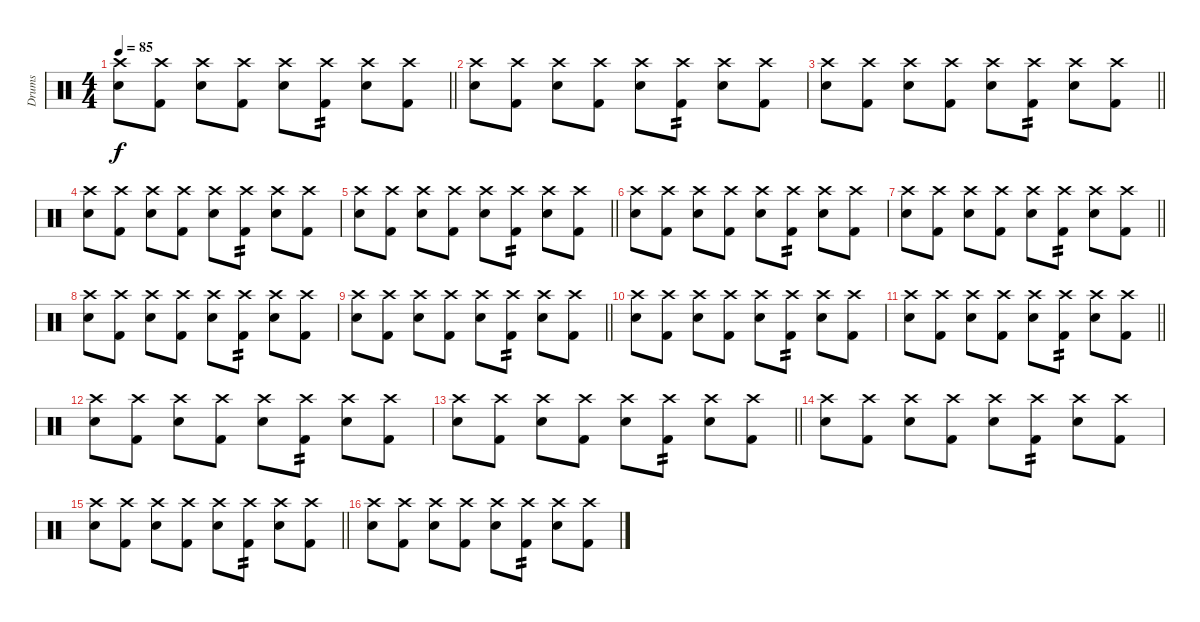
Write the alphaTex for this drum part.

\track ("Drums" "Drums") {instrument percussion}
\staff {score}
\articulation defaults
\ts (4 4)
\tempo 85
\clef neutral
\barLineRight lightlight
\ks c
("Crash high (hit)" "Electric Snare (hit)").8{dy f} ("Crash high (hit)" "Kick (hit) 2").8 ("Crash high (hit)" "Electric Snare (hit)").8 ("Crash high (hit)" "Kick (hit) 2").8 ("Crash high (hit)" "Electric Snare (hit)").8 ("Crash high (hit)" "Kick (hit) 2").8{tp 2} ("Crash high (hit)" "Electric Snare (hit)").8 ("Crash high (hit)" "Kick (hit) 2").8 |
("Crash high (hit)" "Electric Snare (hit)").8 ("Crash high (hit)" "Kick (hit) 2").8 ("Crash high (hit)" "Electric Snare (hit)").8 ("Crash high (hit)" "Kick (hit) 2").8 ("Crash high (hit)" "Electric Snare (hit)").8 ("Crash high (hit)" "Kick (hit) 2").8{tp 2} ("Crash high (hit)" "Electric Snare (hit)").8 ("Crash high (hit)" "Kick (hit) 2").8 |
\barLineRight lightlight
("Crash high (hit)" "Electric Snare (hit)").8 ("Crash high (hit)" "Kick (hit) 2").8 ("Crash high (hit)" "Electric Snare (hit)").8 ("Crash high (hit)" "Kick (hit) 2").8 ("Crash high (hit)" "Electric Snare (hit)").8 ("Crash high (hit)" "Kick (hit) 2").8{tp 2} ("Crash high (hit)" "Electric Snare (hit)").8 ("Crash high (hit)" "Kick (hit) 2").8 |
("Crash high (hit)" "Electric Snare (hit)").8 ("Crash high (hit)" "Kick (hit) 2").8 ("Crash high (hit)" "Electric Snare (hit)").8 ("Crash high (hit)" "Kick (hit) 2").8 ("Crash high (hit)" "Electric Snare (hit)").8 ("Crash high (hit)" "Kick (hit) 2").8{tp 2} ("Crash high (hit)" "Electric Snare (hit)").8 ("Crash high (hit)" "Kick (hit) 2").8 |
\barLineRight lightlight
("Crash high (hit)" "Electric Snare (hit)").8 ("Crash high (hit)" "Kick (hit) 2").8 ("Crash high (hit)" "Electric Snare (hit)").8 ("Crash high (hit)" "Kick (hit) 2").8 ("Crash high (hit)" "Electric Snare (hit)").8 ("Crash high (hit)" "Kick (hit) 2").8{tp 2} ("Crash high (hit)" "Electric Snare (hit)").8 ("Crash high (hit)" "Kick (hit) 2").8 |
("Crash high (hit)" "Electric Snare (hit)").8 ("Crash high (hit)" "Kick (hit) 2").8 ("Crash high (hit)" "Electric Snare (hit)").8 ("Crash high (hit)" "Kick (hit) 2").8 ("Crash high (hit)" "Electric Snare (hit)").8 ("Crash high (hit)" "Kick (hit) 2").8{tp 2} ("Crash high (hit)" "Electric Snare (hit)").8 ("Crash high (hit)" "Kick (hit) 2").8 |
\barLineRight lightlight
("Crash high (hit)" "Electric Snare (hit)").8 ("Crash high (hit)" "Kick (hit) 2").8 ("Crash high (hit)" "Electric Snare (hit)").8 ("Crash high (hit)" "Kick (hit) 2").8 ("Crash high (hit)" "Electric Snare (hit)").8 ("Crash high (hit)" "Kick (hit) 2").8{tp 2} ("Crash high (hit)" "Electric Snare (hit)").8 ("Crash high (hit)" "Kick (hit) 2").8 |
("Crash high (hit)" "Electric Snare (hit)").8 ("Crash high (hit)" "Kick (hit) 2").8 ("Crash high (hit)" "Electric Snare (hit)").8 ("Crash high (hit)" "Kick (hit) 2").8 ("Crash high (hit)" "Electric Snare (hit)").8 ("Crash high (hit)" "Kick (hit) 2").8{tp 2} ("Crash high (hit)" "Electric Snare (hit)").8 ("Crash high (hit)" "Kick (hit) 2").8 |
\barLineRight lightlight
("Crash high (hit)" "Electric Snare (hit)").8 ("Crash high (hit)" "Kick (hit) 2").8 ("Crash high (hit)" "Electric Snare (hit)").8 ("Crash high (hit)" "Kick (hit) 2").8 ("Crash high (hit)" "Electric Snare (hit)").8 ("Crash high (hit)" "Kick (hit) 2").8{tp 2} ("Crash high (hit)" "Electric Snare (hit)").8 ("Crash high (hit)" "Kick (hit) 2").8 |
("Crash high (hit)" "Electric Snare (hit)").8{volume 6} ("Crash high (hit)" "Kick (hit) 2").8 ("Crash high (hit)" "Electric Snare (hit)").8 ("Crash high (hit)" "Kick (hit) 2").8 ("Crash high (hit)" "Electric Snare (hit)").8 ("Crash high (hit)" "Kick (hit) 2").8{tp 2} ("Crash high (hit)" "Electric Snare (hit)").8 ("Crash high (hit)" "Kick (hit) 2").8 |
\barLineRight lightlight
("Crash high (hit)" "Electric Snare (hit)").8 ("Crash high (hit)" "Kick (hit) 2").8 ("Crash high (hit)" "Electric Snare (hit)").8 ("Crash high (hit)" "Kick (hit) 2").8 ("Crash high (hit)" "Electric Snare (hit)").8 ("Crash high (hit)" "Kick (hit) 2").8{tp 2} ("Crash high (hit)" "Electric Snare (hit)").8 ("Crash high (hit)" "Kick (hit) 2").8 |
("Crash high (hit)" "Electric Snare (hit)").8 ("Crash high (hit)" "Kick (hit) 2").8 ("Crash high (hit)" "Electric Snare (hit)").8 ("Crash high (hit)" "Kick (hit) 2").8 ("Crash high (hit)" "Electric Snare (hit)").8 ("Crash high (hit)" "Kick (hit) 2").8{tp 2} ("Crash high (hit)" "Electric Snare (hit)").8 ("Crash high (hit)" "Kick (hit) 2").8 |
\barLineRight lightlight
("Crash high (hit)" "Electric Snare (hit)").8 ("Crash high (hit)" "Kick (hit) 2").8 ("Crash high (hit)" "Electric Snare (hit)").8 ("Crash high (hit)" "Kick (hit) 2").8 ("Crash high (hit)" "Electric Snare (hit)").8 ("Crash high (hit)" "Kick (hit) 2").8{tp 2} ("Crash high (hit)" "Electric Snare (hit)").8 ("Crash high (hit)" "Kick (hit) 2").8 |
("Crash high (hit)" "Electric Snare (hit)").8{volume 0} ("Crash high (hit)" "Kick (hit) 2").8 ("Crash high (hit)" "Electric Snare (hit)").8 ("Crash high (hit)" "Kick (hit) 2").8 ("Crash high (hit)" "Electric Snare (hit)").8 ("Crash high (hit)" "Kick (hit) 2").8{tp 2} ("Crash high (hit)" "Electric Snare (hit)").8 ("Crash high (hit)" "Kick (hit) 2").8 |
\barLineRight lightlight
("Crash high (hit)" "Electric Snare (hit)").8 ("Crash high (hit)" "Kick (hit) 2").8 ("Crash high (hit)" "Electric Snare (hit)").8 ("Crash high (hit)" "Kick (hit) 2").8 ("Crash high (hit)" "Electric Snare (hit)").8 ("Crash high (hit)" "Kick (hit) 2").8{tp 2} ("Crash high (hit)" "Electric Snare (hit)").8 ("Crash high (hit)" "Kick (hit) 2").8 |
("Crash high (hit)" "Electric Snare (hit)").8 ("Crash high (hit)" "Kick (hit) 2").8 ("Crash high (hit)" "Electric Snare (hit)").8 ("Crash high (hit)" "Kick (hit) 2").8 ("Crash high (hit)" "Electric Snare (hit)").8 ("Crash high (hit)" "Kick (hit) 2").8{tp 2} ("Crash high (hit)" "Electric Snare (hit)").8 ("Crash high (hit)" "Kick (hit) 2").8
